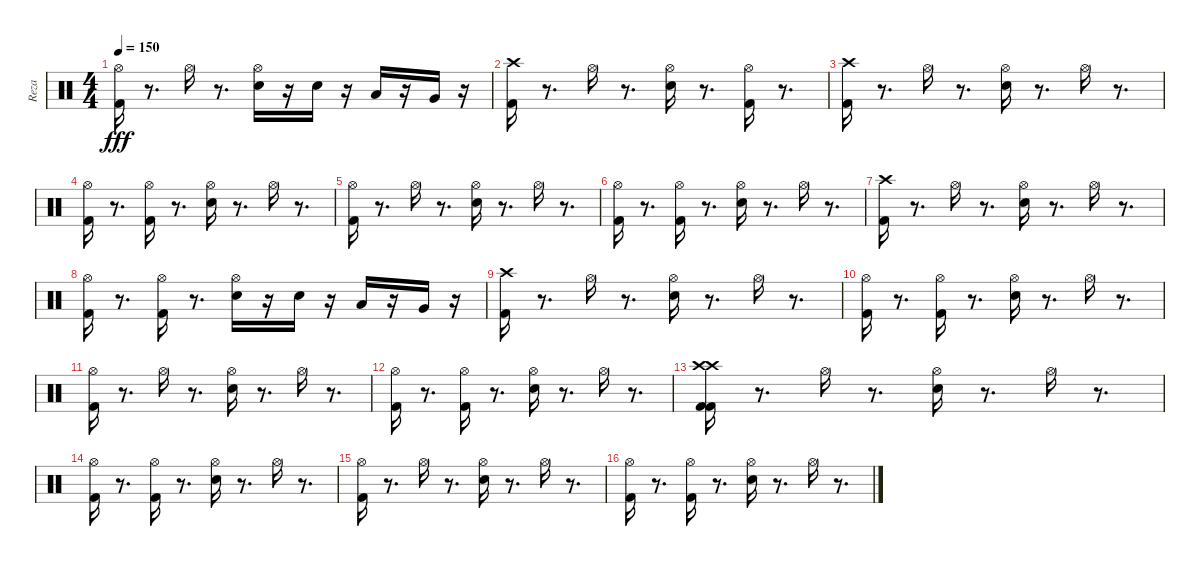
\track ("Reza" "Reza") {instrument percussion}
\staff {score}
\articulation defaults
\ts (4 4)
\tempo 150
\clef neutral
\ks c
("Hi-Hat (open)" "Kick (hit) 2").16{dy fff} r.8{d} "Hi-Hat (open)".16 r.8{d} ("Snare (hit) 2" "Hi-Hat (open)").16 r.16 "Snare (hit) 2".16 r.16 "Low Tom (hit)".16 r.16 "Very Low Tom (hit)".16 r.16 |
("Kick (hit) 2" "Crash high (hit)").16 r.8{d} "Hi-Hat (open)".16 r.8{d} ("Snare (hit) 2" "Hi-Hat (open)").16 r.8{d} ("Kick (hit) 2" "Hi-Hat (open)").16 r.8{d} |
("Crash high (hit)" "Kick (hit) 2").16 r.8{d} "Hi-Hat (open)".16 r.8{d} ("Snare (hit) 2" "Hi-Hat (open)").16 r.8{d} "Hi-Hat (open)".16 r.8{d} |
("Kick (hit) 2" "Hi-Hat (open)").16 r.8{d} ("Kick (hit) 2" "Hi-Hat (open)").16 r.8{d} ("Snare (hit) 2" "Hi-Hat (open)").16 r.8{d} "Hi-Hat (open)".16 r.8{d} |
("Kick (hit) 2" "Hi-Hat (open)").16 r.8{d} "Hi-Hat (open)".16 r.8{d} ("Snare (hit) 2" "Hi-Hat (open)").16 r.8{d} "Hi-Hat (open)".16 r.8{d} |
("Kick (hit) 2" "Hi-Hat (open)").16 r.8{d} ("Kick (hit) 2" "Hi-Hat (open)").16 r.8{d} ("Hi-Hat (open)" "Snare (hit) 2").16 r.8{d} "Hi-Hat (open)".16 r.8{d} |
("Kick (hit) 2" "Crash high (hit)").16 r.8{d} "Hi-Hat (open)".16 r.8{d} ("Snare (hit) 2" "Hi-Hat (open)").16 r.8{d} "Hi-Hat (open)".16 r.8{d} |
("Kick (hit) 2" "Hi-Hat (open)").16 r.8{d} ("Kick (hit) 2" "Hi-Hat (open)").16 r.8{d} ("Snare (hit) 2" "Hi-Hat (open)").16 r.16 "Snare (hit) 2".16 r.16 "Low Tom (hit)".16 r.16 "Very Low Tom (hit)".16 r.16 |
("Crash high (hit)" "Kick (hit) 2").16 r.8{d} "Hi-Hat (open)".16 r.8{d} ("Snare (hit) 2" "Hi-Hat (open)").16 r.8{d} "Hi-Hat (open)".16 r.8{d} |
("Hi-Hat (open)" "Kick (hit) 2").16 r.8{d} ("Hi-Hat (open)" "Kick (hit) 2").16 r.8{d} ("Snare (hit) 2" "Hi-Hat (open)").16 r.8{d} "Hi-Hat (open)".16 r.8{d} |
("Kick (hit) 2" "Hi-Hat (open)").16 r.8{d} "Hi-Hat (open)".16 r.8{d} ("Snare (hit) 2" "Hi-Hat (open)").16 r.8{d} "Hi-Hat (open)".16 r.8{d} |
("Kick (hit) 2" "Hi-Hat (open)").16 r.8{d} ("Kick (hit) 2" "Hi-Hat (open)").16 r.8{d} ("Snare (hit) 2" "Hi-Hat (open)").16 r.8{d} "Hi-Hat (open)".16 r.8{d} |
("Kick (hit) 2" "Crash high (hit)" "Crash high (hit)" "Kick (hit) 2").16 r.8{d} "Hi-Hat (open)".16 r.8{d} ("Snare (hit) 2" "Hi-Hat (open)").16 r.8{d} "Hi-Hat (open)".16 r.8{d} |
("Hi-Hat (open)" "Kick (hit) 2").16 r.8{d} ("Hi-Hat (open)" "Kick (hit) 2").16 r.8{d} ("Snare (hit) 2" "Hi-Hat (open)").16 r.8{d} "Hi-Hat (open)".16 r.8{d} |
("Kick (hit) 2" "Hi-Hat (open)").16 r.8{d} "Hi-Hat (open)".16 r.8{d} ("Snare (hit) 2" "Hi-Hat (open)").16 r.8{d} "Hi-Hat (open)".16 r.8{d} |
("Kick (hit) 2" "Hi-Hat (open)").16 r.8{d} ("Kick (hit) 2" "Hi-Hat (open)").16 r.8{d} ("Snare (hit) 2" "Hi-Hat (open)").16 r.8{d} "Hi-Hat (open)".16 r.8{d}
